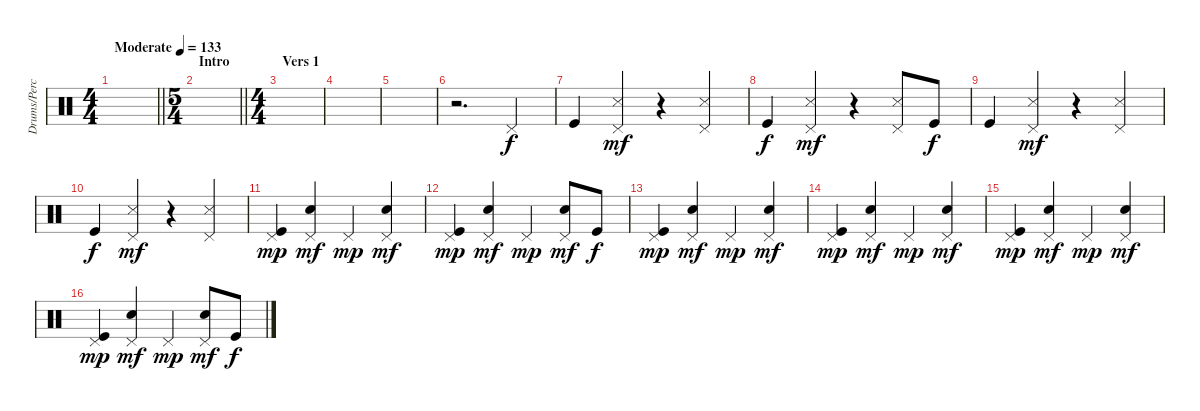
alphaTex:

\track ("Drums/Percussion" "Drums/Perc") {instrument percussion}
\staff {score}
\articulation defaults
\ts (4 4)
\tempo (133 "Moderate")
\clef neutral
\barLineRight lightlight
\ks c
|
\ts (5 4)
\section ("" "Intro")
\barLineRight lightlight
|
\ts (4 4)
\section ("" "Vers 1")
|
|
|
r.2{d} "Pedal Hi-Hat (hit)".4 |
"Kick (hit)".4 ("Pedal Hi-Hat (hit)" "Snare (side stick) 3").4{dy mf} r.4 ("Pedal Hi-Hat (hit)" "Snare (side stick) 3").4 |
"Kick (hit)".4{dy f} ("Pedal Hi-Hat (hit)" "Snare (side stick) 3").4{dy mf} r.4 ("Pedal Hi-Hat (hit)" "Snare (side stick) 3").8 "Kick (hit)".8{dy f} |
"Kick (hit)".4 ("Pedal Hi-Hat (hit)" "Snare (side stick) 3").4{dy mf} r.4 ("Pedal Hi-Hat (hit)" "Snare (side stick) 3").4 |
"Kick (hit)".4{dy f} ("Pedal Hi-Hat (hit)" "Snare (side stick) 3").4{dy mf} r.4 ("Pedal Hi-Hat (hit)" "Snare (side stick) 3").4 |
("Pedal Hi-Hat (hit)" "Kick (hit)").4{dy mp} ("Pedal Hi-Hat (hit)" "Snare (hit) 2").4{dy mf} "Pedal Hi-Hat (hit)".4{dy mp} ("Pedal Hi-Hat (hit)" "Snare (hit) 2").4{dy mf} |
("Pedal Hi-Hat (hit)" "Kick (hit)").4{dy mp} ("Pedal Hi-Hat (hit)" "Snare (hit) 2").4{dy mf} "Pedal Hi-Hat (hit)".4{dy mp} ("Pedal Hi-Hat (hit)" "Snare (hit) 2").8{dy mf} "Kick (hit)".8{dy f} |
("Pedal Hi-Hat (hit)" "Kick (hit)").4{dy mp} ("Pedal Hi-Hat (hit)" "Snare (hit) 2").4{dy mf} "Pedal Hi-Hat (hit)".4{dy mp} ("Pedal Hi-Hat (hit)" "Snare (hit) 2").4{dy mf} |
("Pedal Hi-Hat (hit)" "Kick (hit)").4{dy mp} ("Pedal Hi-Hat (hit)" "Snare (hit) 2").4{dy mf} "Pedal Hi-Hat (hit)".4{dy mp} ("Pedal Hi-Hat (hit)" "Snare (hit) 2").4{dy mf} |
("Pedal Hi-Hat (hit)" "Kick (hit)").4{dy mp} ("Pedal Hi-Hat (hit)" "Snare (hit) 2").4{dy mf} "Pedal Hi-Hat (hit)".4{dy mp} ("Pedal Hi-Hat (hit)" "Snare (hit) 2").4{dy mf} |
("Pedal Hi-Hat (hit)" "Kick (hit)").4{dy mp} ("Pedal Hi-Hat (hit)" "Snare (hit) 2").4{dy mf} "Pedal Hi-Hat (hit)".4{dy mp} ("Pedal Hi-Hat (hit)" "Snare (hit) 2").8{dy mf} "Kick (hit)".8{dy f}
